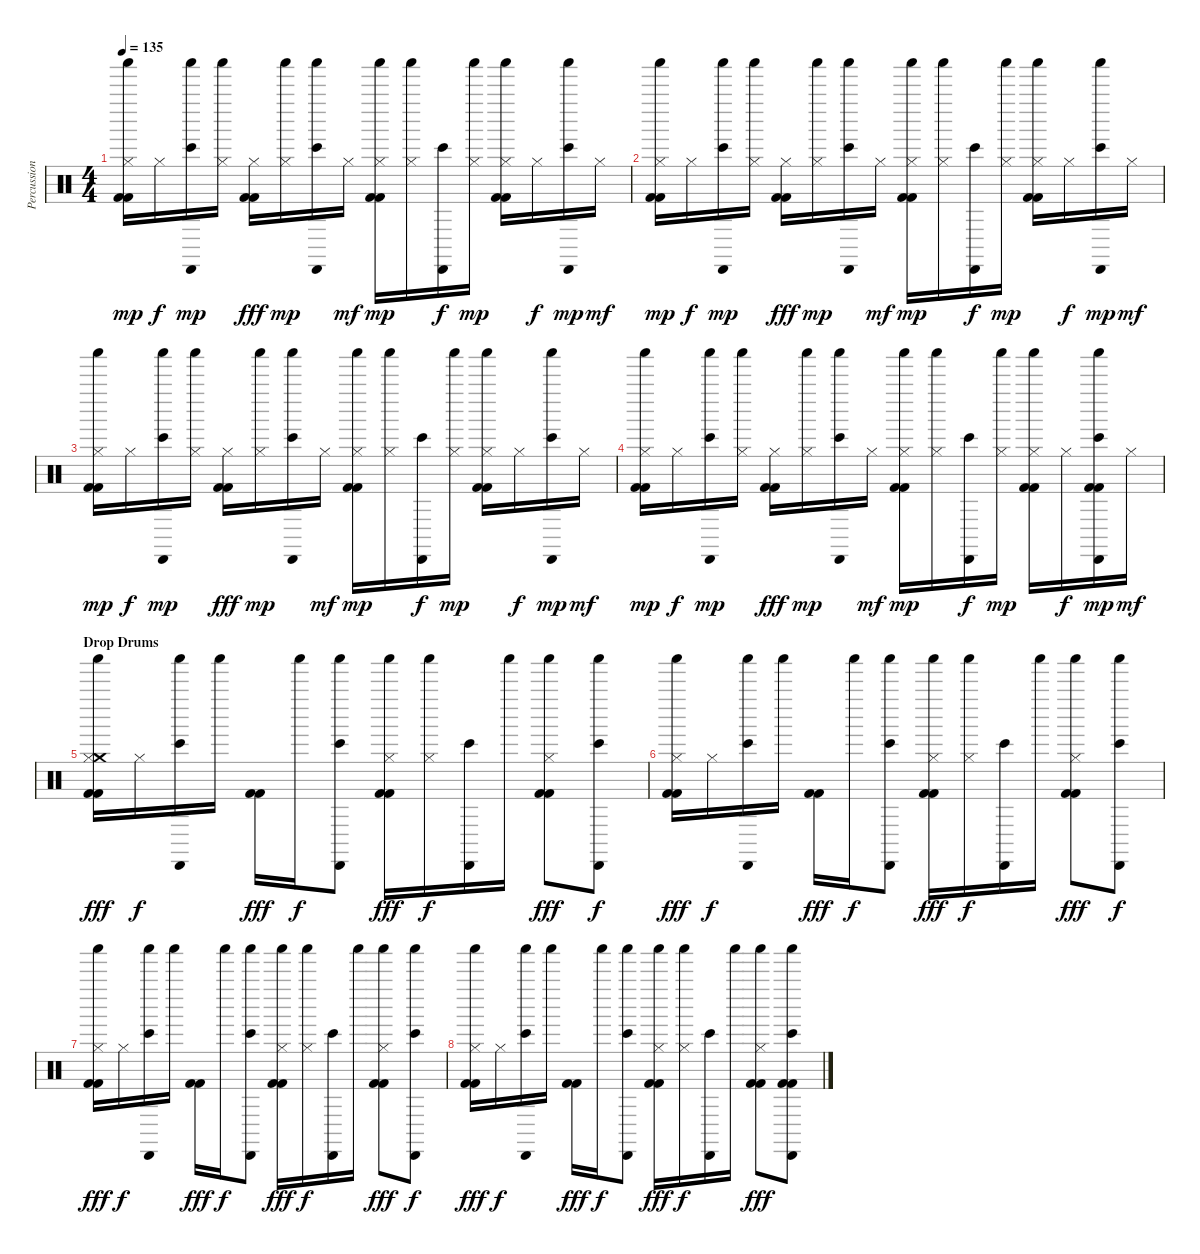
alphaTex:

\track ("Percussion" "Percussion") {instrument percussion}
\staff {score}
\articulation defaults
\ts (4 4)
\tempo 135
\clef neutral
\ks c
("Hi-Hat (closed)" "Kick (hit) 2" "Kick (hit) 2" "Shaker (hit)").16{dy mp} "Hi-Hat (closed)".16{dy f} ("Cabasa (hit)" "Bongo High (hit)" "Shaker (hit)").16{dy mp} ("Hi-Hat (closed)" "Shaker (hit)").16 ("Hi-Hat (closed)" "Kick (hit) 2" "Kick (hit) 2").16{dy fff} ("Hi-Hat (closed)" "Shaker (hit)").16{dy mp} ("Cabasa (hit)" "Bongo High (hit)" "Shaker (hit)").16 "Hi-Hat (closed)".16{dy mf} ("Hi-Hat (closed)" "Kick (hit) 2" "Kick (hit) 2" "Shaker (hit)").16{dy mp} ("Hi-Hat (closed)" "Shaker (hit)").16 ("Cabasa (hit)" "Bongo High (hit)").16{dy f} ("Hi-Hat (closed)" "Shaker (hit)").16{dy mp} ("Hi-Hat (closed)" "Kick (hit) 2" "Kick (hit) 2" "Shaker (hit)").16 "Hi-Hat (closed)".16{dy f} ("Cabasa (hit)" "Bongo High (hit)" "Shaker (hit)").16{dy mp} "Hi-Hat (closed)".16{dy mf} |
("Hi-Hat (closed)" "Kick (hit) 2" "Kick (hit) 2" "Shaker (hit)").16{dy mp} "Hi-Hat (closed)".16{dy f} ("Cabasa (hit)" "Bongo High (hit)" "Shaker (hit)").16{dy mp} ("Hi-Hat (closed)" "Shaker (hit)").16 ("Hi-Hat (closed)" "Kick (hit) 2" "Kick (hit) 2").16{dy fff} ("Hi-Hat (closed)" "Shaker (hit)").16{dy mp} ("Cabasa (hit)" "Bongo High (hit)" "Shaker (hit)").16 "Hi-Hat (closed)".16{dy mf} ("Hi-Hat (closed)" "Kick (hit) 2" "Kick (hit) 2" "Shaker (hit)").16{dy mp} ("Hi-Hat (closed)" "Shaker (hit)").16 ("Cabasa (hit)" "Bongo High (hit)").16{dy f} ("Hi-Hat (closed)" "Shaker (hit)").16{dy mp} ("Hi-Hat (closed)" "Kick (hit) 2" "Kick (hit) 2" "Shaker (hit)").16 "Hi-Hat (closed)".16{dy f} ("Cabasa (hit)" "Bongo High (hit)" "Shaker (hit)").16{dy mp} "Hi-Hat (closed)".16{dy mf} |
("Hi-Hat (closed)" "Kick (hit) 2" "Kick (hit) 2" "Shaker (hit)").16{dy mp} "Hi-Hat (closed)".16{dy f} ("Cabasa (hit)" "Bongo High (hit)" "Shaker (hit)").16{dy mp} ("Hi-Hat (closed)" "Shaker (hit)").16 ("Hi-Hat (closed)" "Kick (hit) 2" "Kick (hit) 2").16{dy fff} ("Hi-Hat (closed)" "Shaker (hit)").16{dy mp} ("Cabasa (hit)" "Bongo High (hit)" "Shaker (hit)").16 "Hi-Hat (closed)".16{dy mf} ("Hi-Hat (closed)" "Kick (hit) 2" "Kick (hit) 2" "Shaker (hit)").16{dy mp} ("Hi-Hat (closed)" "Shaker (hit)").16 ("Cabasa (hit)" "Bongo High (hit)").16{dy f} ("Hi-Hat (closed)" "Shaker (hit)").16{dy mp} ("Hi-Hat (closed)" "Kick (hit) 2" "Kick (hit) 2" "Shaker (hit)").16 "Hi-Hat (closed)".16{dy f} ("Cabasa (hit)" "Bongo High (hit)" "Shaker (hit)").16{dy mp} "Hi-Hat (closed)".16{dy mf} |
("Hi-Hat (closed)" "Kick (hit) 2" "Kick (hit) 2" "Shaker (hit)").16{dy mp} "Hi-Hat (closed)".16{dy f} ("Cabasa (hit)" "Bongo High (hit)" "Shaker (hit)").16{dy mp} ("Hi-Hat (closed)" "Shaker (hit)").16 ("Hi-Hat (closed)" "Kick (hit) 2" "Kick (hit) 2").16{dy fff} ("Hi-Hat (closed)" "Shaker (hit)").16{dy mp} ("Cabasa (hit)" "Bongo High (hit)" "Shaker (hit)").16 "Hi-Hat (closed)".16{dy mf} ("Hi-Hat (closed)" "Kick (hit) 2" "Kick (hit) 2" "Shaker (hit)").16{dy mp} ("Hi-Hat (closed)" "Shaker (hit)").16 ("Cabasa (hit)" "Bongo High (hit)").16{dy f} ("Hi-Hat (closed)" "Shaker (hit)").16{dy mp} ("Hi-Hat (closed)" "Kick (hit) 2" "Kick (hit) 2" "Shaker (hit)").16 "Hi-Hat (closed)".16{dy f} ("Cabasa (hit)" "Bongo High (hit)" "Kick (hit) 2" "Kick (hit) 2" "Shaker (hit)").16{dy mp} "Hi-Hat (closed)".16{dy mf} |
\section ("" "Drop Drums")
("Crash medium (hit)" "Hi-Hat (closed)" "Kick (hit) 2" "Kick (hit) 2" "Shaker (hit)").16{dy fff} "Hi-Hat (closed)".16{dy f} ("Cabasa (hit)" "Bongo High (hit)" "Shaker (hit)").16 "Shaker (hit)".16 ("Kick (hit) 2" "Kick (hit) 2").16{dy fff} "Shaker (hit)".16{dy f} ("Cabasa (hit)" "Bongo High (hit)" "Shaker (hit)").8 ("Hi-Hat (closed)" "Kick (hit) 2" "Kick (hit) 2" "Shaker (hit)").16{dy fff} ("Hi-Hat (closed)" "Shaker (hit)").16{dy f} ("Cabasa (hit)" "Bongo High (hit)").16 "Shaker (hit)".16 ("Hi-Hat (closed)" "Kick (hit) 2" "Kick (hit) 2" "Shaker (hit)").8{dy fff} ("Cabasa (hit)" "Bongo High (hit)" "Shaker (hit)").8{dy f} |
("Hi-Hat (closed)" "Kick (hit) 2" "Kick (hit) 2" "Shaker (hit)").16{dy fff} "Hi-Hat (closed)".16{dy f} ("Cabasa (hit)" "Bongo High (hit)" "Shaker (hit)").16 "Shaker (hit)".16 ("Kick (hit) 2" "Kick (hit) 2").16{dy fff} "Shaker (hit)".16{dy f} ("Cabasa (hit)" "Bongo High (hit)" "Shaker (hit)").8 ("Hi-Hat (closed)" "Kick (hit) 2" "Kick (hit) 2" "Shaker (hit)").16{dy fff} ("Hi-Hat (closed)" "Shaker (hit)").16{dy f} ("Cabasa (hit)" "Bongo High (hit)").16 "Shaker (hit)".16 ("Hi-Hat (closed)" "Kick (hit) 2" "Kick (hit) 2" "Shaker (hit)").8{dy fff} ("Cabasa (hit)" "Bongo High (hit)" "Shaker (hit)").8{dy f} |
("Hi-Hat (closed)" "Kick (hit) 2" "Kick (hit) 2" "Shaker (hit)").16{dy fff} "Hi-Hat (closed)".16{dy f} ("Cabasa (hit)" "Bongo High (hit)" "Shaker (hit)").16 "Shaker (hit)".16 ("Kick (hit) 2" "Kick (hit) 2").16{dy fff} "Shaker (hit)".16{dy f} ("Cabasa (hit)" "Bongo High (hit)" "Shaker (hit)").8 ("Hi-Hat (closed)" "Kick (hit) 2" "Kick (hit) 2" "Shaker (hit)").16{dy fff} ("Hi-Hat (closed)" "Shaker (hit)").16{dy f} ("Cabasa (hit)" "Bongo High (hit)").16 "Shaker (hit)".16 ("Hi-Hat (closed)" "Kick (hit) 2" "Kick (hit) 2" "Shaker (hit)").8{dy fff} ("Cabasa (hit)" "Bongo High (hit)" "Shaker (hit)").8{dy f} |
("Hi-Hat (closed)" "Kick (hit) 2" "Kick (hit) 2" "Shaker (hit)").16{dy fff} "Hi-Hat (closed)".16{dy f} ("Cabasa (hit)" "Bongo High (hit)" "Shaker (hit)").16 "Shaker (hit)".16 ("Kick (hit) 2" "Kick (hit) 2").16{dy fff} "Shaker (hit)".16{dy f} ("Cabasa (hit)" "Bongo High (hit)" "Shaker (hit)").8 ("Hi-Hat (closed)" "Kick (hit) 2" "Kick (hit) 2" "Shaker (hit)").16{dy fff} ("Hi-Hat (closed)" "Shaker (hit)").16{dy f} ("Cabasa (hit)" "Bongo High (hit)").16 "Shaker (hit)".16 ("Hi-Hat (closed)" "Kick (hit) 2" "Kick (hit) 2" "Shaker (hit)").8{dy fff} ("Cabasa (hit)" "Bongo High (hit)" "Kick (hit) 2" "Kick (hit) 2" "Shaker (hit)").8
